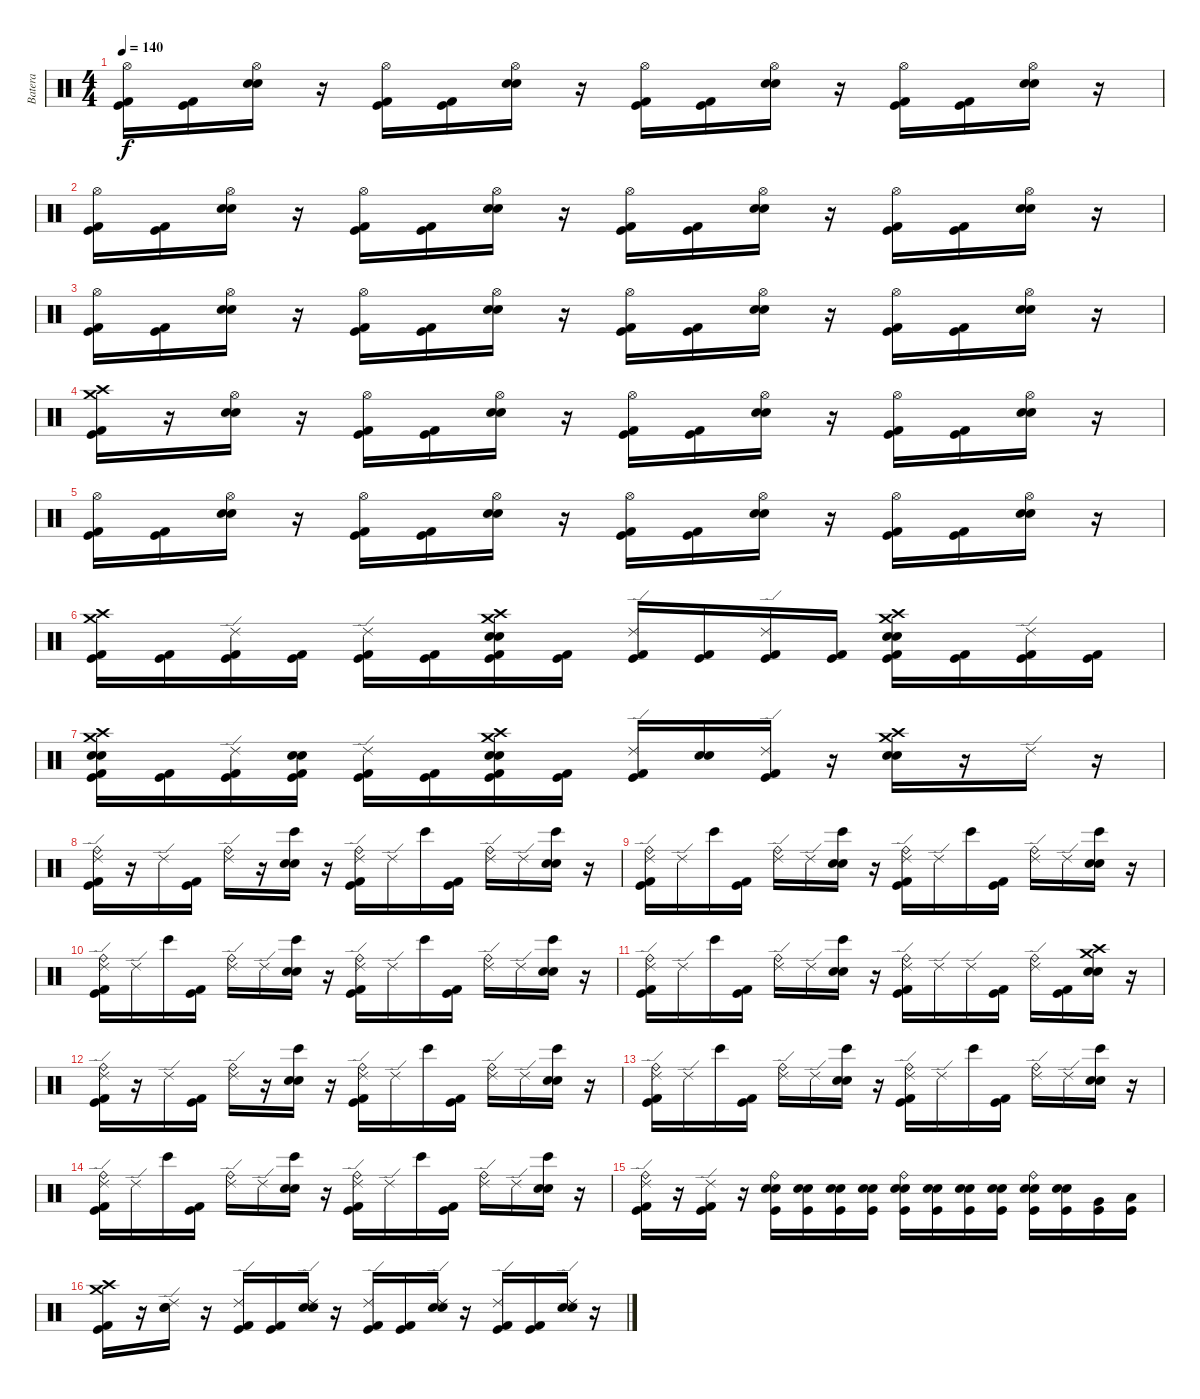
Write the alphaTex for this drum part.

\track ("Batera" "Batera") {instrument percussion}
\staff {score}
\articulation defaults
\ts (4 4)
\tempo 140
\clef neutral
\ks c
("Hi-Hat (open)" "Kick (hit)" "Kick (hit) 2").16{dy f} ("Kick (hit) 2" "Kick (hit)").16 ("Hi-Hat (open)" "Electric Snare (hit)" "Snare (hit) 2").16 r.16 ("Hi-Hat (open)" "Kick (hit) 2" "Kick (hit)").16 ("Kick (hit) 2" "Kick (hit)").16 ("Hi-Hat (open)" "Electric Snare (hit)" "Snare (hit) 2").16 r.16 ("Hi-Hat (open)" "Kick (hit)" "Kick (hit) 2").16 ("Kick (hit) 2" "Kick (hit)").16 ("Hi-Hat (open)" "Electric Snare (hit)" "Snare (hit) 2").16 r.16 ("Hi-Hat (open)" "Kick (hit) 2" "Kick (hit)").16 ("Kick (hit) 2" "Kick (hit)").16 ("Hi-Hat (open)" "Electric Snare (hit)" "Snare (hit) 2").16 r.16 |
("Hi-Hat (open)" "Kick (hit)" "Kick (hit) 2").16 ("Kick (hit) 2" "Kick (hit)").16 ("Hi-Hat (open)" "Electric Snare (hit)" "Snare (hit) 2").16 r.16 ("Hi-Hat (open)" "Kick (hit) 2" "Kick (hit)").16 ("Kick (hit) 2" "Kick (hit)").16 ("Hi-Hat (open)" "Electric Snare (hit)" "Snare (hit) 2").16 r.16 ("Hi-Hat (open)" "Kick (hit)" "Kick (hit) 2").16 ("Kick (hit) 2" "Kick (hit)").16 ("Hi-Hat (open)" "Electric Snare (hit)" "Snare (hit) 2").16 r.16 ("Hi-Hat (open)" "Kick (hit) 2" "Kick (hit)").16 ("Kick (hit) 2" "Kick (hit)").16 ("Hi-Hat (open)" "Electric Snare (hit)" "Snare (hit) 2").16 r.16 |
("Hi-Hat (open)" "Kick (hit)" "Kick (hit) 2").16 ("Kick (hit) 2" "Kick (hit)").16 ("Hi-Hat (open)" "Electric Snare (hit)" "Snare (hit) 2").16 r.16 ("Hi-Hat (open)" "Kick (hit) 2" "Kick (hit)").16 ("Kick (hit) 2" "Kick (hit)").16 ("Hi-Hat (open)" "Electric Snare (hit)" "Snare (hit) 2").16 r.16 ("Hi-Hat (open)" "Kick (hit)" "Kick (hit) 2").16 ("Kick (hit) 2" "Kick (hit)").16 ("Hi-Hat (open)" "Electric Snare (hit)" "Snare (hit) 2").16 r.16 ("Hi-Hat (open)" "Kick (hit) 2" "Kick (hit)").16 ("Kick (hit) 2" "Kick (hit)").16 ("Hi-Hat (open)" "Electric Snare (hit)" "Snare (hit) 2").16 r.16 |
("Crash high (hit)" "Crash medium (hit)" "Kick (hit)" "Kick (hit) 2").16 r.16 ("Hi-Hat (open)" "Electric Snare (hit)" "Snare (hit) 2").16 r.16 ("Hi-Hat (open)" "Kick (hit) 2" "Kick (hit)").16 ("Kick (hit) 2" "Kick (hit)").16 ("Hi-Hat (open)" "Electric Snare (hit)" "Snare (hit) 2").16 r.16 ("Hi-Hat (open)" "Kick (hit)" "Kick (hit) 2").16 ("Kick (hit) 2" "Kick (hit)").16 ("Hi-Hat (open)" "Electric Snare (hit)" "Snare (hit) 2").16 r.16 ("Hi-Hat (open)" "Kick (hit) 2" "Kick (hit)").16 ("Kick (hit) 2" "Kick (hit)").16 ("Hi-Hat (open)" "Electric Snare (hit)" "Snare (hit) 2").16 r.16 |
("Hi-Hat (open)" "Kick (hit)" "Kick (hit) 2").16 ("Kick (hit) 2" "Kick (hit)").16 ("Hi-Hat (open)" "Electric Snare (hit)" "Snare (hit) 2").16 r.16 ("Hi-Hat (open)" "Kick (hit) 2" "Kick (hit)").16 ("Kick (hit) 2" "Kick (hit)").16 ("Hi-Hat (open)" "Electric Snare (hit)" "Snare (hit) 2").16 r.16 ("Hi-Hat (open)" "Kick (hit)" "Kick (hit) 2").16 ("Kick (hit) 2" "Kick (hit)").16 ("Hi-Hat (open)" "Electric Snare (hit)" "Snare (hit) 2").16 r.16 ("Hi-Hat (open)" "Kick (hit) 2" "Kick (hit)").16 ("Kick (hit) 2" "Kick (hit)").16 ("Hi-Hat (open)" "Electric Snare (hit)" "Snare (hit) 2").16 r.16 |
("Crash high (hit)" "Crash medium (hit)" "Kick (hit) 2" "Kick (hit)").16 ("Kick (hit) 2" "Kick (hit)").16 ("Ride (edge) 2" "Kick (hit) 2" "Kick (hit)").16 ("Kick (hit) 2" "Kick (hit)").16 ("Ride (edge) 2" "Kick (hit) 2" "Kick (hit)").16 ("Kick (hit) 2" "Kick (hit)").16 ("Electric Snare (hit)" "Snare (hit) 2" "Crash high (hit)" "Crash medium (hit)" "Kick (hit) 2" "Kick (hit)").16 ("Kick (hit) 2" "Kick (hit)").16 ("Ride (edge) 2" "Kick (hit)" "Kick (hit) 2").16 ("Kick (hit) 2" "Kick (hit)").16 ("Ride (edge) 2" "Kick (hit) 2" "Kick (hit)").16 ("Kick (hit) 2" "Kick (hit)").16 ("Crash high (hit)" "Crash medium (hit)" "Electric Snare (hit)" "Snare (hit) 2" "Kick (hit) 2" "Kick (hit)").16 ("Kick (hit) 2" "Kick (hit)").16 ("Ride (edge) 2" "Kick (hit) 2" "Kick (hit)").16 ("Kick (hit) 2" "Kick (hit)").16 |
("Crash high (hit)" "Crash medium (hit)" "Electric Snare (hit)" "Snare (hit) 2" "Kick (hit) 2" "Kick (hit)").16 ("Kick (hit) 2" "Kick (hit)").16 ("Ride (edge) 2" "Kick (hit) 2" "Kick (hit)").16 ("Electric Snare (hit)" "Snare (hit) 2" "Kick (hit) 2" "Kick (hit)").16 ("Ride (edge) 2" "Kick (hit) 2" "Kick (hit)").16 ("Kick (hit) 2" "Kick (hit)").16 ("Crash high (hit)" "Crash medium (hit)" "Electric Snare (hit)" "Snare (hit) 2" "Kick (hit) 2" "Kick (hit)").16 ("Kick (hit) 2" "Kick (hit)").16 ("Ride (edge) 2" "Kick (hit) 2" "Kick (hit)").16 ("Electric Snare (hit)" "Snare (hit) 2").16 ("Ride (edge) 2" "Kick (hit) 2" "Kick (hit)").16 r.16 ("Crash high (hit)" "Crash medium (hit)" "Electric Snare (hit)" "Snare (hit) 2").16 r.16 "Ride (edge) 2".16 r.16 |
("Ride (bell)" "Ride (edge) 2" "Kick (hit) 2" "Kick (hit)").16 r.16 "Ride (edge) 2".16 ("Kick (hit) 2" "Kick (hit)").16 ("Ride (bell)" "Ride (edge) 2").16 r.16 ("Bongo High (hit)" "Electric Snare (hit)" "Snare (hit) 2").16 r.16 ("Ride (bell)" "Kick (hit) 2" "Kick (hit)" "Ride (edge) 2").16 "Ride (edge) 2".16 "Bongo High (hit)".16 ("Kick (hit) 2" "Kick (hit)").16 ("Ride (bell)" "Ride (edge) 2").16 "Ride (edge) 2".16 ("Electric Snare (hit)" "Snare (hit) 2" "Bongo High (hit)").16 r.16 |
("Ride (bell)" "Ride (edge) 2" "Kick (hit) 2" "Kick (hit)").16 "Ride (edge) 2".16 "Bongo High (hit)".16 ("Kick (hit) 2" "Kick (hit)").16 ("Ride (bell)" "Ride (edge) 2").16 "Ride (edge) 2".16 ("Bongo High (hit)" "Electric Snare (hit)" "Snare (hit) 2").16 r.16 ("Ride (bell)" "Ride (edge) 2" "Kick (hit) 2" "Kick (hit)").16 "Ride (edge) 2".16 "Bongo High (hit)".16 ("Kick (hit) 2" "Kick (hit)").16 ("Ride (bell)" "Ride (edge) 2").16 "Ride (edge) 2".16 ("Bongo High (hit)" "Electric Snare (hit)" "Snare (hit) 2").16 r.16 |
("Ride (bell)" "Ride (edge) 2" "Kick (hit) 2" "Kick (hit)").16 "Ride (edge) 2".16 "Bongo High (hit)".16 ("Kick (hit) 2" "Kick (hit)").16 ("Ride (bell)" "Ride (edge) 2").16 "Ride (edge) 2".16 ("Bongo High (hit)" "Electric Snare (hit)" "Snare (hit) 2").16 r.16 ("Ride (bell)" "Ride (edge) 2" "Kick (hit) 2" "Kick (hit)").16 "Ride (edge) 2".16 "Bongo High (hit)".16 ("Kick (hit) 2" "Kick (hit)").16 ("Ride (bell)" "Ride (edge) 2").16 "Ride (edge) 2".16 ("Bongo High (hit)" "Electric Snare (hit)" "Snare (hit) 2").16 r.16 |
("Ride (bell)" "Ride (edge) 2" "Kick (hit) 2" "Kick (hit)").16 "Ride (edge) 2".16 "Bongo High (hit)".16 ("Kick (hit) 2" "Kick (hit)").16 ("Ride (bell)" "Ride (edge) 2").16 "Ride (edge) 2".16 ("Bongo High (hit)" "Electric Snare (hit)" "Snare (hit) 2").16 r.16 ("Ride (bell)" "Ride (edge) 2" "Kick (hit) 2" "Kick (hit)").16 "Ride (edge) 2".16 "Ride (edge) 2".16 ("Kick (hit) 2" "Kick (hit)").16 ("Ride (bell)" "Ride (edge) 2").16 ("Kick (hit) 2" "Kick (hit)").16 ("Crash high (hit)" "Crash medium (hit)" "Electric Snare (hit)" "Snare (hit) 2").16 r.16 |
("Ride (bell)" "Ride (edge) 2" "Kick (hit) 2" "Kick (hit)").16 r.16 "Ride (edge) 2".16 ("Kick (hit) 2" "Kick (hit)").16 ("Ride (bell)" "Ride (edge) 2").16 r.16 ("Bongo High (hit)" "Electric Snare (hit)" "Snare (hit) 2").16 r.16 ("Ride (bell)" "Kick (hit) 2" "Kick (hit)" "Ride (edge) 2").16 "Ride (edge) 2".16 "Bongo High (hit)".16 ("Kick (hit) 2" "Kick (hit)").16 ("Ride (bell)" "Ride (edge) 2").16 "Ride (edge) 2".16 ("Electric Snare (hit)" "Snare (hit) 2" "Bongo High (hit)").16 r.16 |
("Ride (bell)" "Ride (edge) 2" "Kick (hit) 2" "Kick (hit)").16 "Ride (edge) 2".16 "Bongo High (hit)".16 ("Kick (hit) 2" "Kick (hit)").16 ("Ride (bell)" "Ride (edge) 2").16 "Ride (edge) 2".16 ("Bongo High (hit)" "Electric Snare (hit)" "Snare (hit) 2").16 r.16 ("Ride (bell)" "Ride (edge) 2" "Kick (hit) 2" "Kick (hit)").16 "Ride (edge) 2".16 "Bongo High (hit)".16 ("Kick (hit) 2" "Kick (hit)").16 ("Ride (bell)" "Ride (edge) 2").16 "Ride (edge) 2".16 ("Bongo High (hit)" "Electric Snare (hit)" "Snare (hit) 2").16 r.16 |
("Ride (bell)" "Ride (edge) 2" "Kick (hit) 2" "Kick (hit)").16 "Ride (edge) 2".16 "Bongo High (hit)".16 ("Kick (hit) 2" "Kick (hit)").16 ("Ride (bell)" "Ride (edge) 2").16 "Ride (edge) 2".16 ("Bongo High (hit)" "Electric Snare (hit)" "Snare (hit) 2").16 r.16 ("Ride (bell)" "Ride (edge) 2" "Kick (hit) 2" "Kick (hit)").16 "Ride (edge) 2".16 "Bongo High (hit)".16 ("Kick (hit) 2" "Kick (hit)").16 ("Ride (bell)" "Ride (edge) 2").16 "Ride (edge) 2".16 ("Bongo High (hit)" "Electric Snare (hit)" "Snare (hit) 2").16 r.16 |
("Ride (bell)" "Ride (edge) 2" "Kick (hit) 2" "Kick (hit)").16 r.16 ("Ride (edge) 2" "Kick (hit) 2" "Kick (hit)").16 r.16 ("Kick (hit)" "Electric Snare (hit)" "Snare (hit) 2" "Ride (bell)").16 ("Kick (hit)" "Electric Snare (hit)" "Snare (hit) 2").16 ("Kick (hit)" "Electric Snare (hit)" "Snare (hit) 2").16 ("Kick (hit)" "Electric Snare (hit)" "Snare (hit) 2").16 ("Kick (hit)" "Electric Snare (hit)" "Snare (hit) 2" "Ride (bell)").16 ("Kick (hit)" "Electric Snare (hit)" "Snare (hit) 2").16 ("Kick (hit)" "Electric Snare (hit)" "Snare (hit) 2").16 ("Kick (hit)" "Electric Snare (hit)" "Snare (hit) 2").16 ("Kick (hit)" "Electric Snare (hit)" "Snare (hit) 2" "Ride (bell)").16 ("Kick (hit)" "Electric Snare (hit)" "Snare (hit) 2").16 ("Very Low Tom (hit)" "Kick (hit)").16 ("Low Floor Tom (hit)" "Kick (hit)").16 |
("Crash high (hit)" "Crash medium (hit)" "Kick (hit) 2" "Kick (hit)").16 r.16 ("Ride (edge) 2" "Electric Snare (hit)" "Snare (hit) 2").16 r.16 ("Ride (edge) 2" "Kick (hit) 2" "Kick (hit)").16 ("Kick (hit) 2" "Kick (hit)").16 ("Ride (edge) 2" "Electric Snare (hit)" "Snare (hit) 2").16 r.16 ("Ride (edge) 2" "Kick (hit) 2" "Kick (hit)").16 ("Kick (hit) 2" "Kick (hit)").16 ("Ride (edge) 2" "Electric Snare (hit)" "Snare (hit) 2").16 r.16 ("Ride (edge) 2" "Kick (hit) 2" "Kick (hit)").16 ("Kick (hit) 2" "Kick (hit)").16 ("Ride (edge) 2" "Electric Snare (hit)" "Snare (hit) 2").16 r.16
